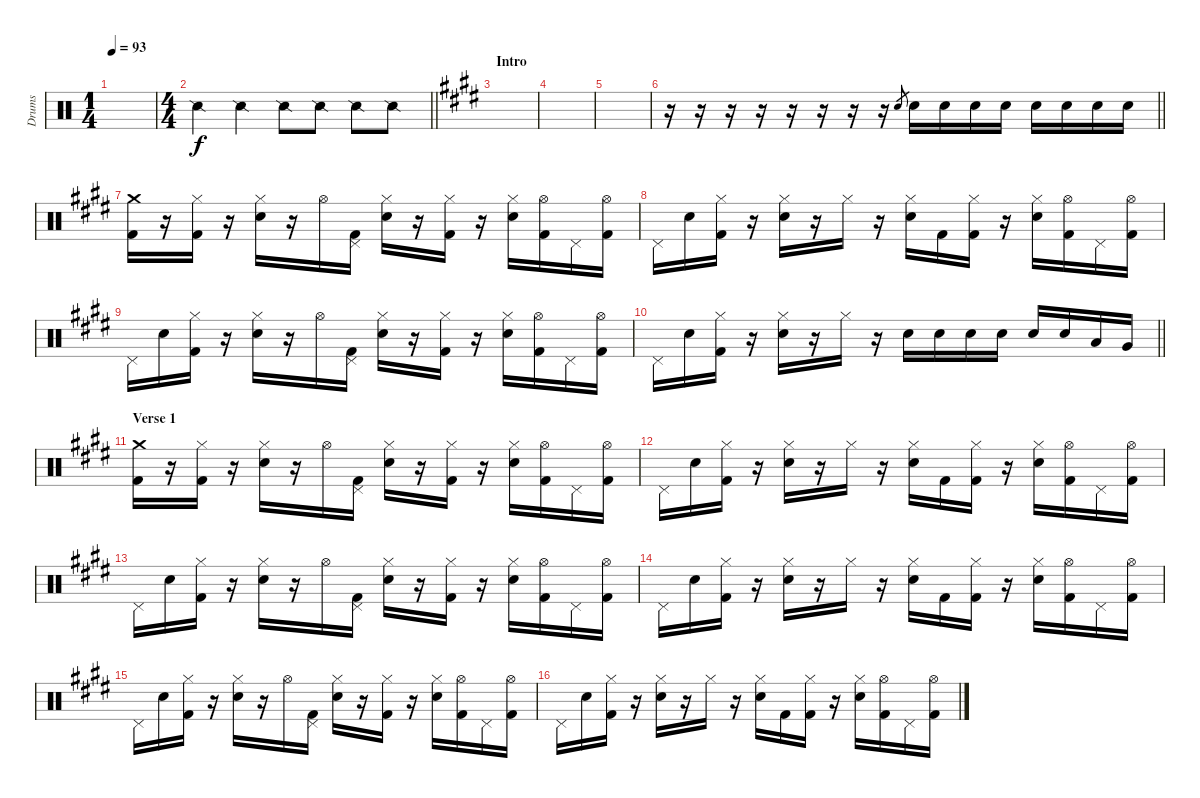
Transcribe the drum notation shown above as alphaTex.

\track ("Drums" "Drums") {instrument percussion}
\staff {score}
\articulation defaults
\ts (1 4)
\tempo 93
\clef neutral
\ks c
|
\ts (4 4)
\barLineRight lightlight "Snare (side stick) 2".4 "Snare (side stick) 2".4 "Snare (side stick) 2".8 "Snare (side stick) 2".8 "Snare (side stick) 2".8 "Snare (side stick) 2".8
|
\section ("" "Intro")
\ks e
|
|
|
\barLineRight lightlight
r.16 r.16 r.16 r.16 r.16 r.16 r.16 r.16 "Snare (hit) 2".8{gr} "Snare (hit) 2".16 "Snare (hit) 2".16 "Snare (hit) 2".16 "Snare (hit) 2".16 "Snare (hit) 2".16 "Snare (hit) 2".16 "Snare (hit) 2".16 "Snare (hit) 2".16 |
\section ("" "")
("Crash medium (hit)" "Kick (hit) 2").16 r.16 ("Hi-Hat (closed)" "Kick (hit) 2").16 r.16 ("Hi-Hat (closed)" "Snare (hit) 2").16 r.16 "Hi-Hat (open)".16 ("Pedal Hi-Hat (hit)" "Kick (hit) 2").16 ("Hi-Hat (closed)" "Snare (hit) 2").16 r.16 ("Hi-Hat (closed)" "Kick (hit) 2").16 r.16 ("Hi-Hat (closed)" "Snare (hit) 2").16 ("Hi-Hat (open)" "Kick (hit) 2").16 "Pedal Hi-Hat (hit)".16 ("Hi-Hat (open)" "Kick (hit) 2").16 |
"Pedal Hi-Hat (hit)".16 "Snare (hit) 2".16 ("Hi-Hat (closed)" "Kick (hit) 2").16 r.16 ("Hi-Hat (closed)" "Snare (hit) 2").16 r.16 "Hi-Hat (closed)".16 r.16 ("Hi-Hat (closed)" "Snare (hit) 2").16 "Kick (hit) 2".16 ("Hi-Hat (closed)" "Kick (hit) 2").16 r.16 ("Hi-Hat (closed)" "Snare (hit) 2").16 ("Hi-Hat (open)" "Kick (hit) 2").16 "Pedal Hi-Hat (hit)".16 ("Hi-Hat (open)" "Kick (hit) 2").16 |
"Pedal Hi-Hat (hit)".16 "Snare (hit) 2".16 ("Hi-Hat (closed)" "Kick (hit) 2").16 r.16 ("Hi-Hat (closed)" "Snare (hit) 2").16 r.16 "Hi-Hat (open)".16 ("Pedal Hi-Hat (hit)" "Kick (hit) 2").16 ("Hi-Hat (closed)" "Snare (hit) 2").16 r.16 ("Hi-Hat (closed)" "Kick (hit) 2").16 r.16 ("Hi-Hat (closed)" "Snare (hit) 2").16 ("Hi-Hat (open)" "Kick (hit) 2").16 "Pedal Hi-Hat (hit)".16 ("Hi-Hat (open)" "Kick (hit) 2").16 |
\barLineRight lightlight "Pedal Hi-Hat (hit)".16 "Snare (hit) 2".16
("Hi-Hat (closed)" "Kick (hit) 2").16 r.16 ("Hi-Hat (closed)" "Snare (hit) 2").16 r.16 "Hi-Hat (closed)".16 r.16 "Snare (hit) 2".16 "Snare (hit) 2".16 "Snare (hit) 2".16 "Snare (hit) 2".16 "Snare (hit) 2".16 "Snare (hit) 2".16 "Low Tom (hit)".16 "Very Low Tom (hit)".16 |
\section ("" "Verse 1")
("Crash medium (hit)" "Kick (hit) 2").16 r.16 ("Hi-Hat (closed)" "Kick (hit) 2").16 r.16 ("Hi-Hat (closed)" "Snare (hit) 2").16 r.16 "Hi-Hat (open)".16 ("Pedal Hi-Hat (hit)" "Kick (hit) 2").16 ("Hi-Hat (closed)" "Snare (hit) 2").16 r.16 ("Hi-Hat (closed)" "Kick (hit) 2").16 r.16 ("Hi-Hat (closed)" "Snare (hit) 2").16 ("Hi-Hat (open)" "Kick (hit) 2").16 "Pedal Hi-Hat (hit)".16 ("Hi-Hat (open)" "Kick (hit) 2").16 |
"Pedal Hi-Hat (hit)".16 "Snare (hit) 2".16 ("Hi-Hat (closed)" "Kick (hit) 2").16 r.16 ("Hi-Hat (closed)" "Snare (hit) 2").16 r.16 "Hi-Hat (closed)".16 r.16 ("Hi-Hat (closed)" "Snare (hit) 2").16 "Kick (hit) 2".16 ("Hi-Hat (closed)" "Kick (hit) 2").16 r.16 ("Hi-Hat (closed)" "Snare (hit) 2").16 ("Hi-Hat (open)" "Kick (hit) 2").16 "Pedal Hi-Hat (hit)".16 ("Hi-Hat (open)" "Kick (hit) 2").16 |
"Pedal Hi-Hat (hit)".16 "Snare (hit) 2".16 ("Hi-Hat (closed)" "Kick (hit) 2").16 r.16 ("Hi-Hat (closed)" "Snare (hit) 2").16 r.16 "Hi-Hat (open)".16 ("Pedal Hi-Hat (hit)" "Kick (hit) 2").16 ("Hi-Hat (closed)" "Snare (hit) 2").16 r.16 ("Hi-Hat (closed)" "Kick (hit) 2").16 r.16 ("Hi-Hat (closed)" "Snare (hit) 2").16 ("Hi-Hat (open)" "Kick (hit) 2").16 "Pedal Hi-Hat (hit)".16 ("Hi-Hat (open)" "Kick (hit) 2").16 |
"Pedal Hi-Hat (hit)".16 "Snare (hit) 2".16 ("Hi-Hat (closed)" "Kick (hit) 2").16 r.16 ("Hi-Hat (closed)" "Snare (hit) 2").16 r.16 "Hi-Hat (closed)".16 r.16 ("Hi-Hat (closed)" "Snare (hit) 2").16 "Kick (hit) 2".16 ("Hi-Hat (closed)" "Kick (hit) 2").16 r.16 ("Hi-Hat (closed)" "Snare (hit) 2").16 ("Hi-Hat (open)" "Kick (hit) 2").16 "Pedal Hi-Hat (hit)".16 ("Hi-Hat (open)" "Kick (hit) 2").16 |
"Pedal Hi-Hat (hit)".16 "Snare (hit) 2".16 ("Hi-Hat (closed)" "Kick (hit) 2").16 r.16 ("Hi-Hat (closed)" "Snare (hit) 2").16 r.16 "Hi-Hat (open)".16 ("Pedal Hi-Hat (hit)" "Kick (hit) 2").16 ("Hi-Hat (closed)" "Snare (hit) 2").16 r.16 ("Hi-Hat (closed)" "Kick (hit) 2").16 r.16 ("Hi-Hat (closed)" "Snare (hit) 2").16 ("Hi-Hat (open)" "Kick (hit) 2").16 "Pedal Hi-Hat (hit)".16 ("Hi-Hat (open)" "Kick (hit) 2").16 |
"Pedal Hi-Hat (hit)".16 "Snare (hit) 2".16 ("Hi-Hat (closed)" "Kick (hit) 2").16 r.16 ("Hi-Hat (closed)" "Snare (hit) 2").16 r.16 "Hi-Hat (closed)".16 r.16 ("Hi-Hat (closed)" "Snare (hit) 2").16 "Kick (hit) 2".16 ("Hi-Hat (closed)" "Kick (hit) 2").16 r.16 ("Hi-Hat (closed)" "Snare (hit) 2").16 ("Hi-Hat (open)" "Kick (hit) 2").16 "Pedal Hi-Hat (hit)".16 ("Hi-Hat (open)" "Kick (hit) 2").16
